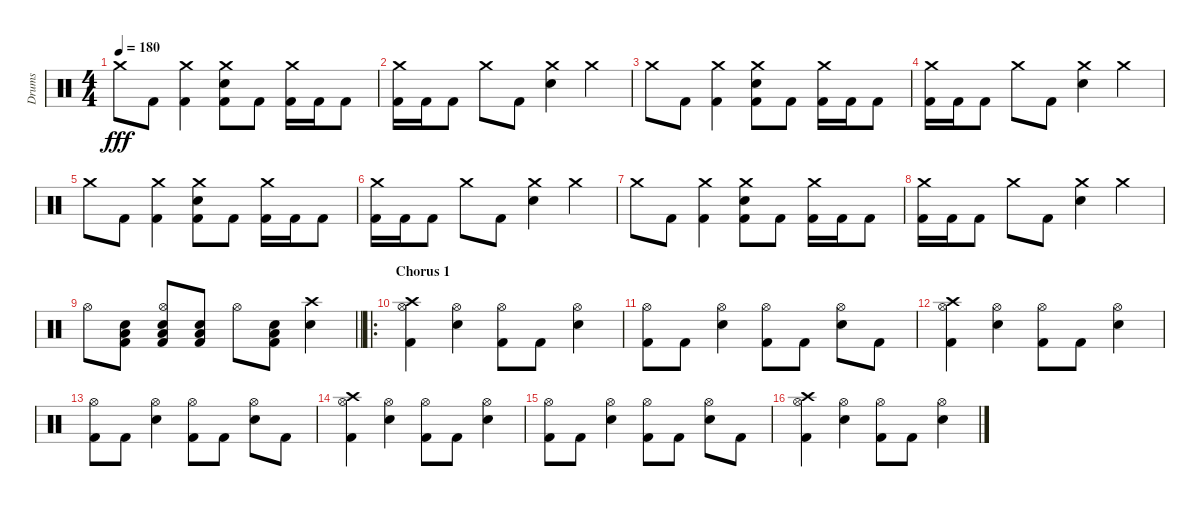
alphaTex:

\track ("Drums" "Drums") {instrument percussion}
\staff {score}
\articulation defaults
\ts (4 4)
\tempo 180
\clef neutral
\ks c "Crash medium (hit)".8{dy fff} "Kick (hit) 2".8
("Crash medium (hit)" "Kick (hit) 2").4 ("Crash medium (hit)" "Snare (hit) 2" "Kick (hit) 2").8 "Kick (hit) 2".8 ("Crash medium (hit)" "Kick (hit) 2").16 "Kick (hit) 2".16 "Kick (hit) 2".8 |
("Crash medium (hit)" "Kick (hit) 2").16 "Kick (hit) 2".16 "Kick (hit) 2".8 "Crash medium (hit)".8 "Kick (hit) 2".8 ("Crash medium (hit)" "Snare (hit) 2").4 "Crash medium (hit)".4 |
"Crash medium (hit)".8 "Kick (hit) 2".8 ("Crash medium (hit)" "Kick (hit) 2").4 ("Crash medium (hit)" "Snare (hit) 2" "Kick (hit) 2").8 "Kick (hit) 2".8 ("Crash medium (hit)" "Kick (hit) 2").16 "Kick (hit) 2".16 "Kick (hit) 2".8 |
("Crash medium (hit)" "Kick (hit) 2").16 "Kick (hit) 2".16 "Kick (hit) 2".8 "Crash medium (hit)".8 "Kick (hit) 2".8 ("Crash medium (hit)" "Snare (hit) 2").4 "Crash medium (hit)".4 |
"Crash medium (hit)".8 "Kick (hit) 2".8 ("Crash medium (hit)" "Kick (hit) 2").4 ("Crash medium (hit)" "Snare (hit) 2" "Kick (hit) 2").8 "Kick (hit) 2".8 ("Crash medium (hit)" "Kick (hit) 2").16 "Kick (hit) 2".16 "Kick (hit) 2".8 |
("Crash medium (hit)" "Kick (hit) 2").16 "Kick (hit) 2".16 "Kick (hit) 2".8 "Crash medium (hit)".8 "Kick (hit) 2".8 ("Crash medium (hit)" "Snare (hit) 2").4 "Crash medium (hit)".4 |
"Crash medium (hit)".8 "Kick (hit) 2".8 ("Crash medium (hit)" "Kick (hit) 2").4 ("Crash medium (hit)" "Snare (hit) 2" "Kick (hit) 2").8 "Kick (hit) 2".8 ("Crash medium (hit)" "Kick (hit) 2").16 "Kick (hit) 2".16 "Kick (hit) 2".8 |
("Crash medium (hit)" "Kick (hit) 2").16 "Kick (hit) 2".16 "Kick (hit) 2".8 "Crash medium (hit)".8 "Kick (hit) 2".8 ("Crash medium (hit)" "Snare (hit) 2").4 "Crash medium (hit)".4 |
\barLineRight lightlight "Hi-Hat (open)".8
("Low Floor Tom (hit)" "Snare (hit) 2" "Kick (hit) 2").8 ("Hi-Hat (open)" "Low Floor Tom (hit)" "Snare (hit) 2" "Kick (hit) 2").8 ("Low Floor Tom (hit)" "Snare (hit) 2" "Kick (hit) 2").8 "Hi-Hat (open)".8 ("Low Floor Tom (hit)" "Snare (hit) 2" "Kick (hit) 2").8 ("Crash high (hit)" "Snare (hit) 2").4 |
\ro
\section ("" "Chorus 1")
("Crash high (hit)" "Hi-Hat (open)" "Kick (hit) 2").4 ("Hi-Hat (open)" "Snare (hit) 2").4 ("Hi-Hat (open)" "Kick (hit) 2").8 "Kick (hit) 2".8 ("Hi-Hat (open)" "Snare (hit) 2").4 |
("Hi-Hat (open)" "Kick (hit) 2").8 "Kick (hit) 2".8 ("Hi-Hat (open)" "Snare (hit) 2").4 ("Hi-Hat (open)" "Kick (hit) 2").8 "Kick (hit) 2".8 ("Hi-Hat (open)" "Snare (hit) 2").8 "Kick (hit) 2".8 |
("Crash high (hit)" "Hi-Hat (open)" "Kick (hit) 2").4 ("Hi-Hat (open)" "Snare (hit) 2").4 ("Hi-Hat (open)" "Kick (hit) 2").8 "Kick (hit) 2".8 ("Hi-Hat (open)" "Snare (hit) 2").4 |
("Hi-Hat (open)" "Kick (hit) 2").8 "Kick (hit) 2".8 ("Hi-Hat (open)" "Snare (hit) 2").4 ("Hi-Hat (open)" "Kick (hit) 2").8 "Kick (hit) 2".8 ("Hi-Hat (open)" "Snare (hit) 2").8 "Kick (hit) 2".8 |
("Crash high (hit)" "Hi-Hat (open)" "Kick (hit) 2").4 ("Hi-Hat (open)" "Snare (hit) 2").4 ("Hi-Hat (open)" "Kick (hit) 2").8 "Kick (hit) 2".8 ("Hi-Hat (open)" "Snare (hit) 2").4 |
("Hi-Hat (open)" "Kick (hit) 2").8 "Kick (hit) 2".8 ("Hi-Hat (open)" "Snare (hit) 2").4 ("Hi-Hat (open)" "Kick (hit) 2").8 "Kick (hit) 2".8 ("Hi-Hat (open)" "Snare (hit) 2").8 "Kick (hit) 2".8 |
("Crash high (hit)" "Hi-Hat (open)" "Kick (hit) 2").4 ("Hi-Hat (open)" "Snare (hit) 2").4 ("Hi-Hat (open)" "Kick (hit) 2").8 "Kick (hit) 2".8 ("Hi-Hat (open)" "Snare (hit) 2").4
